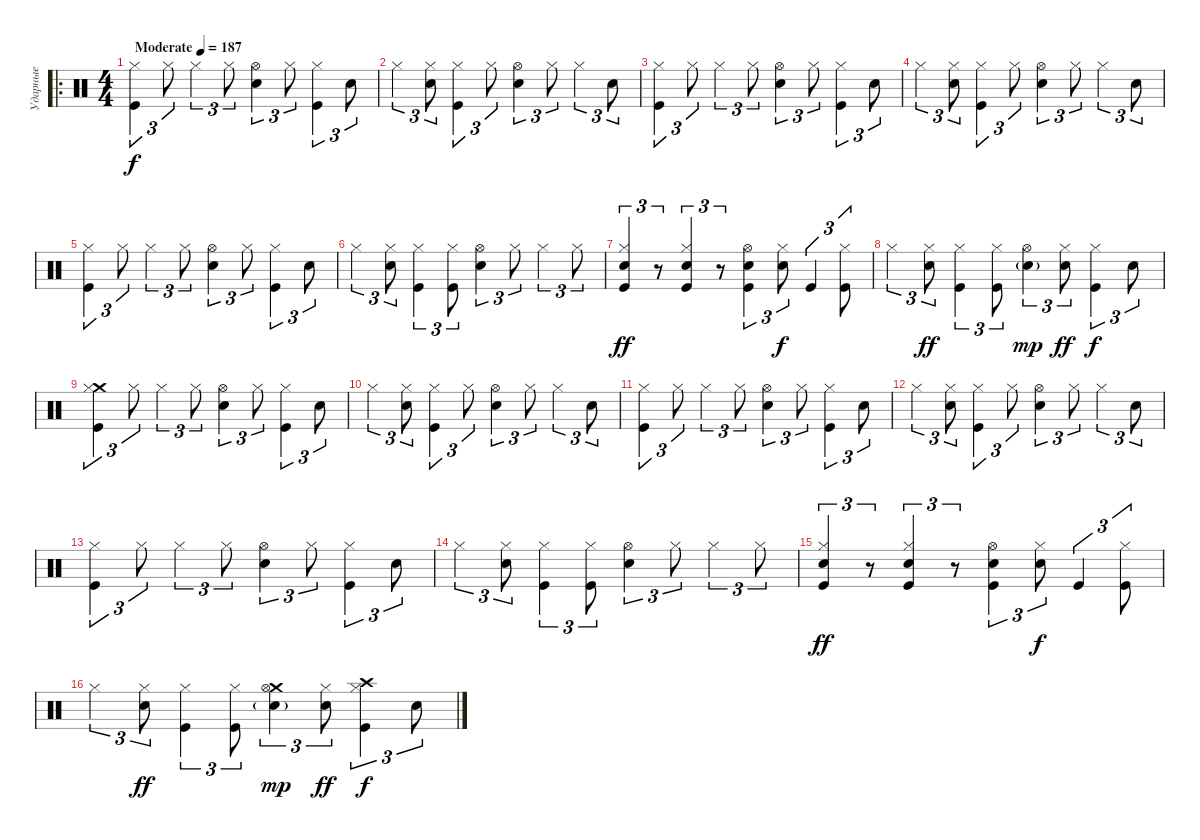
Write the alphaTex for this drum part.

\track ("Ударные" "Ударные") {instrument percussion}
\staff {score}
\articulation defaults
\ro
\ts (4 4)
\tempo (187 "Moderate")
\clef neutral
\ks c
("Kick (hit)" "Hi-Hat (closed)").4{tu (3 2) dy f} "Hi-Hat (closed)".8{tu (3 2)} "Hi-Hat (closed)".4{tu (3 2)} "Hi-Hat (closed)".8{tu (3 2)} ("Snare (hit) 2" "Hi-Hat (open)").4{tu (3 2)} "Hi-Hat (closed)".8{tu (3 2)} ("Kick (hit)" "Hi-Hat (closed)").4{tu (3 2)} "Snare (hit) 2".8{tu (3 2)} |
"Hi-Hat (closed)".4{tu (3 2)} ("Snare (hit) 2" "Hi-Hat (closed)").8{tu (3 2)} ("Kick (hit)" "Hi-Hat (closed)").4{tu (3 2)} "Hi-Hat (closed)".8{tu (3 2)} ("Snare (hit) 2" "Hi-Hat (open)").4{tu (3 2)} "Hi-Hat (closed)".8{tu (3 2)} "Hi-Hat (closed)".4{tu (3 2)} "Snare (hit) 2".8{tu (3 2)} |
("Kick (hit)" "Hi-Hat (closed)").4{tu (3 2)} "Hi-Hat (closed)".8{tu (3 2)} "Hi-Hat (closed)".4{tu (3 2)} "Hi-Hat (closed)".8{tu (3 2)} ("Snare (hit) 2" "Hi-Hat (open)").4{tu (3 2)} "Hi-Hat (closed)".8{tu (3 2)} ("Kick (hit)" "Hi-Hat (closed)").4{tu (3 2)} "Snare (hit) 2".8{tu (3 2)} |
"Hi-Hat (closed)".4{tu (3 2)} ("Snare (hit) 2" "Hi-Hat (closed)").8{tu (3 2)} ("Kick (hit)" "Hi-Hat (closed)").4{tu (3 2)} "Hi-Hat (closed)".8{tu (3 2)} ("Snare (hit) 2" "Hi-Hat (open)").4{tu (3 2)} "Hi-Hat (closed)".8{tu (3 2)} "Hi-Hat (closed)".4{tu (3 2)} "Snare (hit) 2".8{tu (3 2)} |
("Kick (hit)" "Hi-Hat (closed)").4{tu (3 2)} "Hi-Hat (closed)".8{tu (3 2)} "Hi-Hat (closed)".4{tu (3 2)} "Hi-Hat (closed)".8{tu (3 2)} ("Snare (hit) 2" "Hi-Hat (open)").4{tu (3 2)} "Hi-Hat (closed)".8{tu (3 2)} ("Kick (hit)" "Hi-Hat (closed)").4{tu (3 2)} "Snare (hit) 2".8{tu (3 2)} |
"Hi-Hat (closed)".4{tu (3 2)} ("Snare (hit) 2" "Hi-Hat (closed)").8{tu (3 2)} ("Kick (hit)" "Hi-Hat (closed)").4{tu (3 2)} ("Kick (hit)" "Hi-Hat (closed)").8{tu (3 2)} ("Snare (hit) 2" "Hi-Hat (open)").4{tu (3 2)} "Hi-Hat (closed)".8{tu (3 2)} "Hi-Hat (closed)".4{tu (3 2)} "Hi-Hat (closed)".8{tu (3 2)} |
("Kick (hit)" "Snare (hit) 2" "Hi-Hat (closed)").4{tu (3 2) dy ff} r.8{tu (3 2)} ("Kick (hit)" "Snare (hit) 2" "Hi-Hat (closed)").4{tu (3 2)} r.8{tu (3 2)} ("Kick (hit)" "Snare (hit) 2" "Hi-Hat (open)").4{tu (3 2)} ("Snare (hit) 2" "Hi-Hat (closed)").8{tu (3 2) dy f} "Kick (hit)".4{tu (3 2)} ("Kick (hit)" "Hi-Hat (closed)").8{tu (3 2)} |
"Hi-Hat (closed)".4{tu (3 2)} ("Snare (hit) 2" "Hi-Hat (closed)").8{tu (3 2) dy ff} ("Kick (hit)" "Hi-Hat (closed)").4{tu (3 2)} ("Kick (hit)" "Hi-Hat (closed)").8{tu (3 2)} ("Snare (hit) 2"{g} "Hi-Hat (open)").4{tu (3 2) dy mp} ("Snare (hit) 2" "Hi-Hat (closed)").8{tu (3 2) dy ff} ("Kick (hit)" "Hi-Hat (closed)").4{tu (3 2) dy f} "Snare (hit) 2".8{tu (3 2)} |
("Kick (hit)" "Crash medium (hit)" "Hi-Hat (closed)").4{tu (3 2)} "Hi-Hat (closed)".8{tu (3 2)} "Hi-Hat (closed)".4{tu (3 2)} "Hi-Hat (closed)".8{tu (3 2)} ("Snare (hit) 2" "Hi-Hat (open)").4{tu (3 2)} "Hi-Hat (closed)".8{tu (3 2)} ("Kick (hit)" "Hi-Hat (closed)").4{tu (3 2)} "Snare (hit) 2".8{tu (3 2)} |
"Hi-Hat (closed)".4{tu (3 2)} ("Snare (hit) 2" "Hi-Hat (closed)").8{tu (3 2)} ("Kick (hit)" "Hi-Hat (closed)").4{tu (3 2)} "Hi-Hat (closed)".8{tu (3 2)} ("Snare (hit) 2" "Hi-Hat (open)").4{tu (3 2)} "Hi-Hat (closed)".8{tu (3 2)} "Hi-Hat (closed)".4{tu (3 2)} "Snare (hit) 2".8{tu (3 2)} |
("Kick (hit)" "Hi-Hat (closed)").4{tu (3 2)} "Hi-Hat (closed)".8{tu (3 2)} "Hi-Hat (closed)".4{tu (3 2)} "Hi-Hat (closed)".8{tu (3 2)} ("Snare (hit) 2" "Hi-Hat (open)").4{tu (3 2)} "Hi-Hat (closed)".8{tu (3 2)} ("Kick (hit)" "Hi-Hat (closed)").4{tu (3 2)} "Snare (hit) 2".8{tu (3 2)} |
"Hi-Hat (closed)".4{tu (3 2)} ("Snare (hit) 2" "Hi-Hat (closed)").8{tu (3 2)} ("Kick (hit)" "Hi-Hat (closed)").4{tu (3 2)} "Hi-Hat (closed)".8{tu (3 2)} ("Snare (hit) 2" "Hi-Hat (open)").4{tu (3 2)} "Hi-Hat (closed)".8{tu (3 2)} "Hi-Hat (closed)".4{tu (3 2)} "Snare (hit) 2".8{tu (3 2)} |
("Kick (hit)" "Hi-Hat (closed)").4{tu (3 2)} "Hi-Hat (closed)".8{tu (3 2)} "Hi-Hat (closed)".4{tu (3 2)} "Hi-Hat (closed)".8{tu (3 2)} ("Snare (hit) 2" "Hi-Hat (open)").4{tu (3 2)} "Hi-Hat (closed)".8{tu (3 2)} ("Kick (hit)" "Hi-Hat (closed)").4{tu (3 2)} "Snare (hit) 2".8{tu (3 2)} |
"Hi-Hat (closed)".4{tu (3 2)} ("Snare (hit) 2" "Hi-Hat (closed)").8{tu (3 2)} ("Kick (hit)" "Hi-Hat (closed)").4{tu (3 2)} ("Kick (hit)" "Hi-Hat (closed)").8{tu (3 2)} ("Snare (hit) 2" "Hi-Hat (open)").4{tu (3 2)} "Hi-Hat (closed)".8{tu (3 2)} "Hi-Hat (closed)".4{tu (3 2)} "Hi-Hat (closed)".8{tu (3 2)} |
("Kick (hit)" "Snare (hit) 2" "Hi-Hat (closed)").4{tu (3 2) dy ff} r.8{tu (3 2)} ("Kick (hit)" "Snare (hit) 2" "Hi-Hat (closed)").4{tu (3 2)} r.8{tu (3 2)} ("Kick (hit)" "Snare (hit) 2" "Hi-Hat (open)").4{tu (3 2)} ("Snare (hit) 2" "Hi-Hat (closed)").8{tu (3 2) dy f} "Kick (hit)".4{tu (3 2)} ("Kick (hit)" "Hi-Hat (closed)").8{tu (3 2)} |
"Hi-Hat (closed)".4{tu (3 2)} ("Snare (hit) 2" "Hi-Hat (closed)").8{tu (3 2) dy ff} ("Kick (hit)" "Hi-Hat (closed)").4{tu (3 2)} ("Kick (hit)" "Hi-Hat (closed)").8{tu (3 2)} ("Crash medium (hit)" "Snare (hit) 2"{g} "Hi-Hat (open)").4{tu (3 2) dy mp} ("Snare (hit) 2" "Hi-Hat (closed)").8{tu (3 2) dy ff} ("Kick (hit)" "Crash high (hit)" "Hi-Hat (closed)").4{tu (3 2) dy f} "Snare (hit) 2".8{tu (3 2)}
